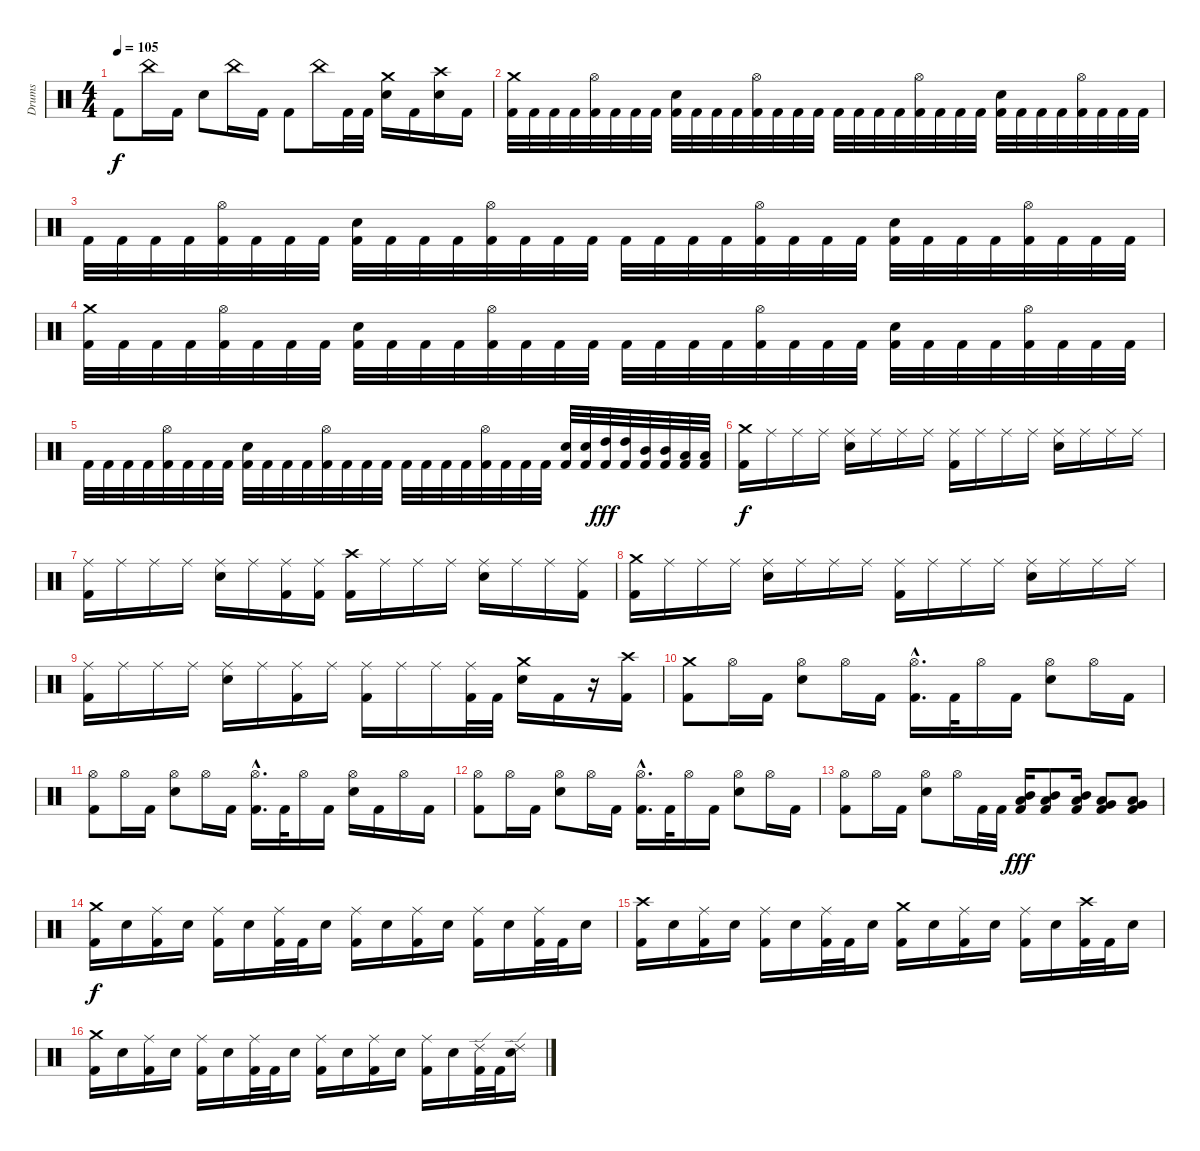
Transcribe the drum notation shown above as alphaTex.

\track ("Drums" "Drums") {instrument percussion}
\staff {score}
\articulation defaults
\ts (4 4)
\tempo 105
\clef neutral
\ks c "Kick (hit) 2".8{dy f} "China (hit)".16 "Kick (hit) 2".16 "Electric Snare (hit)".8 "China (hit)".16 "Kick (hit) 2".16 "Kick (hit) 2".8 "China (hit)".16 "Kick (hit) 2".32 "Kick (hit) 2".32
("Electric Snare (hit)" "Crash medium (hit)").16 "Kick (hit) 2".16 ("Electric Snare (hit)" "Crash high (hit)").16 "Kick (hit) 2".16 |
("Kick (hit) 2" "Crash medium (hit)").32 "Kick (hit) 2".32 "Kick (hit) 2".32 "Kick (hit) 2".32 ("Kick (hit) 2" "Hi-Hat (open)").32 "Kick (hit) 2".32 "Kick (hit) 2".32 "Kick (hit) 2".32 ("Kick (hit) 2" "Electric Snare (hit)").32 "Kick (hit) 2".32 "Kick (hit) 2".32 "Kick (hit) 2".32 ("Kick (hit) 2" "Hi-Hat (open)").32 "Kick (hit) 2".32 "Kick (hit) 2".32 "Kick (hit) 2".32 "Kick (hit) 2".32 "Kick (hit) 2".32 "Kick (hit) 2".32 "Kick (hit) 2".32 ("Kick (hit) 2" "Hi-Hat (open)").32 "Kick (hit) 2".32 "Kick (hit) 2".32 "Kick (hit) 2".32 ("Kick (hit) 2" "Electric Snare (hit)").32 "Kick (hit) 2".32 "Kick (hit) 2".32 "Kick (hit) 2".32 ("Kick (hit) 2" "Hi-Hat (open)").32 "Kick (hit) 2".32 "Kick (hit) 2".32 "Kick (hit) 2".32 |
"Kick (hit) 2".32 "Kick (hit) 2".32 "Kick (hit) 2".32 "Kick (hit) 2".32 ("Kick (hit) 2" "Hi-Hat (open)").32 "Kick (hit) 2".32 "Kick (hit) 2".32 "Kick (hit) 2".32 ("Kick (hit) 2" "Electric Snare (hit)").32 "Kick (hit) 2".32 "Kick (hit) 2".32 "Kick (hit) 2".32 ("Kick (hit) 2" "Hi-Hat (open)").32 "Kick (hit) 2".32 "Kick (hit) 2".32 "Kick (hit) 2".32 "Kick (hit) 2".32 "Kick (hit) 2".32 "Kick (hit) 2".32 "Kick (hit) 2".32 ("Kick (hit) 2" "Hi-Hat (open)").32 "Kick (hit) 2".32 "Kick (hit) 2".32 "Kick (hit) 2".32 ("Kick (hit) 2" "Electric Snare (hit)").32 "Kick (hit) 2".32 "Kick (hit) 2".32 "Kick (hit) 2".32 ("Kick (hit) 2" "Hi-Hat (open)").32 "Kick (hit) 2".32 "Kick (hit) 2".32 "Kick (hit) 2".32 |
("Kick (hit) 2" "Crash medium (hit)").32 "Kick (hit) 2".32 "Kick (hit) 2".32 "Kick (hit) 2".32 ("Kick (hit) 2" "Hi-Hat (open)").32 "Kick (hit) 2".32 "Kick (hit) 2".32 "Kick (hit) 2".32 ("Kick (hit) 2" "Electric Snare (hit)").32 "Kick (hit) 2".32 "Kick (hit) 2".32 "Kick (hit) 2".32 ("Kick (hit) 2" "Hi-Hat (open)").32 "Kick (hit) 2".32 "Kick (hit) 2".32 "Kick (hit) 2".32 "Kick (hit) 2".32 "Kick (hit) 2".32 "Kick (hit) 2".32 "Kick (hit) 2".32 ("Kick (hit) 2" "Hi-Hat (open)").32 "Kick (hit) 2".32 "Kick (hit) 2".32 "Kick (hit) 2".32 ("Kick (hit) 2" "Electric Snare (hit)").32 "Kick (hit) 2".32 "Kick (hit) 2".32 "Kick (hit) 2".32 ("Kick (hit) 2" "Hi-Hat (open)").32 "Kick (hit) 2".32 "Kick (hit) 2".32 "Kick (hit) 2".32 |
"Kick (hit) 2".32 "Kick (hit) 2".32 "Kick (hit) 2".32 "Kick (hit) 2".32 ("Kick (hit) 2" "Hi-Hat (open)").32 "Kick (hit) 2".32 "Kick (hit) 2".32 "Kick (hit) 2".32 ("Kick (hit) 2" "Electric Snare (hit)").32 "Kick (hit) 2".32 "Kick (hit) 2".32 "Kick (hit) 2".32 ("Kick (hit) 2" "Hi-Hat (open)").32 "Kick (hit) 2".32 "Kick (hit) 2".32 "Kick (hit) 2".32 "Kick (hit) 2".32 "Kick (hit) 2".32 "Kick (hit) 2".32 "Kick (hit) 2".32 ("Kick (hit) 2" "Hi-Hat (open)").32 "Kick (hit) 2".32 "Kick (hit) 2".32 "Kick (hit) 2".32 ("Kick (hit) 2" "Electric Snare (hit)").32 ("Kick (hit) 2" "Electric Snare (hit)").32 ("Kick (hit) 2" "High Tom (hit)").32{dy fff} ("Kick (hit) 2" "High Tom (hit)").32 ("Kick (hit) 2" "Mid Tom (hit)").32 ("Kick (hit) 2" "Mid Tom (hit)").32 ("Kick (hit) 2" "Low Tom (hit)").32 ("Kick (hit) 2" "Low Tom (hit)").32 |
("Kick (hit) 2" "Crash medium (hit)").16{dy f} "Ride (middle)".16 "Ride (middle)".16 "Ride (middle)".16 ("Electric Snare (hit)" "Ride (middle)").16 "Ride (middle)".16 "Ride (middle)".16 "Ride (middle)".16 ("Kick (hit) 2" "Ride (middle)").16 "Ride (middle)".16 "Ride (middle)".16 "Ride (middle)".16 ("Electric Snare (hit)" "Ride (middle)").16 "Ride (middle)".16 "Ride (middle)".16 "Ride (middle)".16 |
("Kick (hit) 2" "Ride (middle)").16 "Ride (middle)".16 "Ride (middle)".16 "Ride (middle)".16 ("Electric Snare (hit)" "Ride (middle)").16 "Ride (middle)".16 ("Kick (hit) 2" "Ride (middle)").16 ("Kick (hit) 2" "Ride (middle)").16 ("Kick (hit) 2" "Crash high (hit)").16 "Ride (middle)".16 "Ride (middle)".16 "Ride (middle)".16 ("Electric Snare (hit)" "Ride (middle)").16 "Ride (middle)".16 "Ride (middle)".16 ("Kick (hit) 2" "Ride (middle)").16 |
("Kick (hit) 2" "Crash medium (hit)").16 "Ride (middle)".16 "Ride (middle)".16 "Ride (middle)".16 ("Electric Snare (hit)" "Ride (middle)").16 "Ride (middle)".16 "Ride (middle)".16 "Ride (middle)".16 ("Kick (hit) 2" "Ride (middle)").16 "Ride (middle)".16 "Ride (middle)".16 "Ride (middle)".16 ("Electric Snare (hit)" "Ride (middle)").16 "Ride (middle)".16 "Ride (middle)".16 "Ride (middle)".16 |
("Kick (hit) 2" "Ride (middle)").16 "Ride (middle)".16 "Ride (middle)".16 "Ride (middle)".16 ("Electric Snare (hit)" "Ride (middle)").16 "Ride (middle)".16 ("Kick (hit) 2" "Ride (middle)").16 "Ride (middle)".16 ("Kick (hit) 2" "Ride (middle)").16 "Ride (middle)".16 "Ride (middle)".16 ("Kick (hit) 2" "Ride (middle)").32 "Kick (hit) 2".32 ("Electric Snare (hit)" "Crash medium (hit)").16 "Kick (hit) 2".16 r.16 ("Kick (hit) 2" "Crash high (hit)").16 |
("Kick (hit) 2" "Crash medium (hit)").8 "Hi-Hat (open)".16 "Kick (hit) 2".16 ("Electric Snare (hit)" "Hi-Hat (open)").8 "Hi-Hat (open)".16 "Kick (hit) 2".16 ("Kick (hit) 2"{hac} "Hi-Hat (open)"{hac}).16{d} "Kick (hit) 2".32 "Hi-Hat (open)".16 "Kick (hit) 2".16 ("Electric Snare (hit)" "Hi-Hat (open)").8 "Hi-Hat (open)".16 "Kick (hit) 2".16 |
("Kick (hit) 2" "Hi-Hat (open)").8 "Hi-Hat (open)".16 "Kick (hit) 2".16 ("Electric Snare (hit)" "Hi-Hat (open)").8 "Hi-Hat (open)".16 "Kick (hit) 2".16 ("Kick (hit) 2"{hac} "Hi-Hat (open)"{hac}).16{d} "Kick (hit) 2".32 "Hi-Hat (open)".16 "Kick (hit) 2".16 ("Electric Snare (hit)" "Hi-Hat (open)").16 "Kick (hit) 2".16 "Hi-Hat (open)".16 "Kick (hit) 2".16 |
("Kick (hit) 2" "Hi-Hat (open)").8 "Hi-Hat (open)".16 "Kick (hit) 2".16 ("Electric Snare (hit)" "Hi-Hat (open)").8 "Hi-Hat (open)".16 "Kick (hit) 2".16 ("Kick (hit) 2"{hac} "Hi-Hat (open)"{hac}).16{d} "Kick (hit) 2".32 "Hi-Hat (open)".16 "Kick (hit) 2".16 ("Electric Snare (hit)" "Hi-Hat (open)").8 "Hi-Hat (open)".16 "Kick (hit) 2".16 |
("Kick (hit) 2" "Hi-Hat (open)").8 "Hi-Hat (open)".16 "Kick (hit) 2".16 ("Electric Snare (hit)" "Hi-Hat (open)").8 "Hi-Hat (open)".16 "Kick (hit) 2".32 "Kick (hit) 2".32 ("Kick (hit) 2" "Low Tom (hit)" "Mid Tom (hit)").16{dy fff} ("Kick (hit) 2" "Low Tom (hit)" "Mid Tom (hit)").8 ("Kick (hit) 2" "Low Tom (hit)" "Mid Tom (hit)").16 ("Kick (hit) 2" "Very Low Tom (hit)" "Low Tom (hit)").8 ("Kick (hit) 2" "Very Low Tom (hit)" "Low Tom (hit)").8 |
("Kick (hit) 2" "Crash medium (hit)").16{dy f} "Electric Snare (hit)".16 ("Kick (hit) 2" "Ride (middle)").16 "Electric Snare (hit)".16 ("Kick (hit) 2" "Ride (middle)").16 "Electric Snare (hit)".16 ("Kick (hit) 2" "Ride (middle)").32 "Kick (hit) 2".32 "Electric Snare (hit)".16 ("Kick (hit) 2" "Ride (middle)").16 "Electric Snare (hit)".16 ("Kick (hit) 2" "Ride (middle)").16 "Electric Snare (hit)".16 ("Kick (hit) 2" "Ride (middle)").16 "Electric Snare (hit)".16 ("Kick (hit) 2" "Ride (middle)").32 "Kick (hit) 2".32 "Electric Snare (hit)".16 |
("Kick (hit) 2" "Crash high (hit)").16 "Electric Snare (hit)".16 ("Kick (hit) 2" "Ride (middle)").16 "Electric Snare (hit)".16 ("Kick (hit) 2" "Ride (middle)").16 "Electric Snare (hit)".16 ("Kick (hit) 2" "Ride (middle)").32 "Kick (hit) 2".32 "Electric Snare (hit)".16 ("Kick (hit) 2" "Crash medium (hit)").16 "Electric Snare (hit)".16 ("Kick (hit) 2" "Ride (middle)").16 "Electric Snare (hit)".16 ("Kick (hit) 2" "Ride (middle)").16 "Electric Snare (hit)".16 ("Kick (hit) 2" "Crash high (hit)").32 "Kick (hit) 2".32 "Electric Snare (hit)".16 |
("Kick (hit) 2" "Crash medium (hit)").16 "Electric Snare (hit)".16 ("Kick (hit) 2" "Ride (middle)").16 "Electric Snare (hit)".16 ("Kick (hit) 2" "Ride (middle)").16 "Electric Snare (hit)".16 ("Kick (hit) 2" "Ride (middle)").32 "Kick (hit) 2".32 "Electric Snare (hit)".16 ("Kick (hit) 2" "Ride (middle)").16 "Electric Snare (hit)".16 ("Kick (hit) 2" "Ride (middle)").16 "Electric Snare (hit)".16 ("Kick (hit) 2" "Ride (middle)").16 "Electric Snare (hit)".16 ("Kick (hit) 2" "Ride (edge) 2").32 "Kick (hit) 2".32 ("Electric Snare (hit)" "Ride (edge) 2").16
